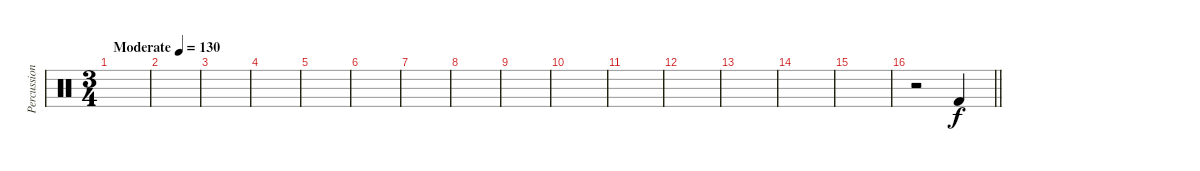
\track ("Percussion" "Percussion") {instrument percussion}
\staff {score}
\articulation defaults
\ts (3 4)
\tempo (130 "Moderate")
\clef neutral
\ks c
|
|
|
|
|
|
|
|
|
|
|
|
|
|
|
\barLineRight lightlight
r.2 "Kick (hit) 2".4
